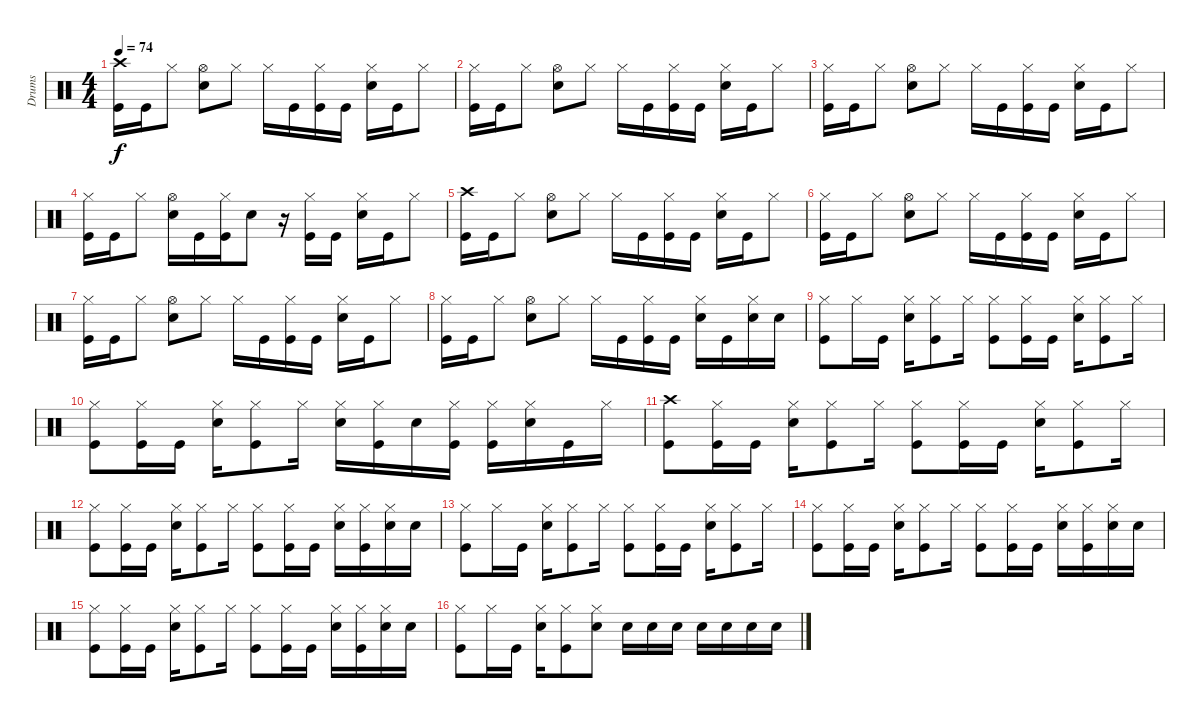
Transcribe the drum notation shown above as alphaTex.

\track ("Drums" "Drums") {instrument percussion}
\staff {score}
\articulation defaults
\ts (4 4)
\tempo 74
\clef neutral
\ks c
("Crash high (hit)" "Kick (hit)").16{dy f} "Kick (hit)".16 "Hi-Hat (closed)".8 ("Hi-Hat (open)" "Snare (hit) 2").8 "Hi-Hat (closed)".8 "Hi-Hat (closed)".16 "Kick (hit)".16 ("Hi-Hat (closed)" "Kick (hit)").16 "Kick (hit)".16 ("Hi-Hat (closed)" "Snare (hit) 2").16 "Kick (hit)".16 "Hi-Hat (closed)".8 |
("Hi-Hat (closed)" "Kick (hit)").16 "Kick (hit)".16 "Hi-Hat (closed)".8 ("Hi-Hat (open)" "Snare (hit) 2").8 "Hi-Hat (closed)".8 "Hi-Hat (closed)".16 "Kick (hit)".16 ("Hi-Hat (closed)" "Kick (hit)").16 "Kick (hit)".16 ("Hi-Hat (closed)" "Snare (hit) 2").16 "Kick (hit)".16 "Hi-Hat (closed)".8 |
("Hi-Hat (closed)" "Kick (hit)").16 "Kick (hit)".16 "Hi-Hat (closed)".8 ("Hi-Hat (open)" "Snare (hit) 2").8 "Hi-Hat (closed)".8 "Hi-Hat (closed)".16 "Kick (hit)".16 ("Hi-Hat (closed)" "Kick (hit)").16 "Kick (hit)".16 ("Hi-Hat (closed)" "Snare (hit) 2").16 "Kick (hit)".16 "Hi-Hat (closed)".8 |
("Hi-Hat (closed)" "Kick (hit)").16 "Kick (hit)".16 "Hi-Hat (closed)".8 ("Hi-Hat (open)" "Snare (hit) 2").16 "Kick (hit)".16 ("Hi-Hat (closed)" "Kick (hit)").16 "Snare (hit) 2".8 r.16 ("Hi-Hat (closed)" "Kick (hit)").16 "Kick (hit)".16 ("Hi-Hat (closed)" "Snare (hit) 2").16 "Kick (hit)".16 "Hi-Hat (closed)".8 |
("Crash high (hit)" "Kick (hit)").16 "Kick (hit)".16 "Hi-Hat (closed)".8 ("Hi-Hat (open)" "Snare (hit) 2").8 "Hi-Hat (closed)".8 "Hi-Hat (closed)".16 "Kick (hit)".16 ("Hi-Hat (closed)" "Kick (hit)").16 "Kick (hit)".16 ("Hi-Hat (closed)" "Snare (hit) 2").16 "Kick (hit)".16 "Hi-Hat (closed)".8 |
("Hi-Hat (closed)" "Kick (hit)").16 "Kick (hit)".16 "Hi-Hat (closed)".8 ("Hi-Hat (open)" "Snare (hit) 2").8 "Hi-Hat (closed)".8 "Hi-Hat (closed)".16 "Kick (hit)".16 ("Hi-Hat (closed)" "Kick (hit)").16 "Kick (hit)".16 ("Hi-Hat (closed)" "Snare (hit) 2").16 "Kick (hit)".16 "Hi-Hat (closed)".8 |
("Hi-Hat (closed)" "Kick (hit)").16 "Kick (hit)".16 "Hi-Hat (closed)".8 ("Hi-Hat (open)" "Snare (hit) 2").8 "Hi-Hat (closed)".8 "Hi-Hat (closed)".16 "Kick (hit)".16 ("Hi-Hat (closed)" "Kick (hit)").16 "Kick (hit)".16 ("Hi-Hat (closed)" "Snare (hit) 2").16 "Kick (hit)".16 "Hi-Hat (closed)".8 |
("Hi-Hat (closed)" "Kick (hit)").16 "Kick (hit)".16 "Hi-Hat (closed)".8 ("Hi-Hat (open)" "Snare (hit) 2").8 "Hi-Hat (closed)".8 "Hi-Hat (closed)".16 "Kick (hit)".16 ("Hi-Hat (closed)" "Kick (hit)").16 "Kick (hit)".16 ("Hi-Hat (closed)" "Snare (hit) 2").16 "Kick (hit)".16 ("Hi-Hat (closed)" "Snare (hit) 2").16 "Snare (hit) 2".16 |
("Hi-Hat (closed)" "Kick (hit)").8 "Hi-Hat (closed)".16 "Kick (hit)".16 ("Hi-Hat (closed)" "Snare (hit) 2").16 ("Hi-Hat (closed)" "Kick (hit)").8 "Hi-Hat (closed)".16 ("Hi-Hat (closed)" "Kick (hit)").8 ("Hi-Hat (closed)" "Kick (hit)").16 "Kick (hit)".16 ("Hi-Hat (closed)" "Snare (hit) 2").16 ("Hi-Hat (closed)" "Kick (hit)").8 "Hi-Hat (closed)".16 |
("Hi-Hat (closed)" "Kick (hit)").8 ("Hi-Hat (closed)" "Kick (hit)").16 "Kick (hit)".16 ("Hi-Hat (closed)" "Snare (hit) 2").16 ("Hi-Hat (closed)" "Kick (hit)").8 "Hi-Hat (closed)".16 ("Hi-Hat (closed)" "Snare (hit) 2").16 ("Hi-Hat (closed)" "Kick (hit)").16 "Snare (hit) 2".16 ("Hi-Hat (closed)" "Kick (hit)").16 ("Hi-Hat (closed)" "Kick (hit)").16 ("Hi-Hat (closed)" "Snare (hit) 2").16 "Kick (hit)".16 "Hi-Hat (closed)".16 |
("Crash high (hit)" "Kick (hit)").8 ("Hi-Hat (closed)" "Kick (hit)").16 "Kick (hit)".16 ("Hi-Hat (closed)" "Snare (hit) 2").16 ("Hi-Hat (closed)" "Kick (hit)").8 "Hi-Hat (closed)".16 ("Hi-Hat (closed)" "Kick (hit)").8 ("Hi-Hat (closed)" "Kick (hit)").16 "Kick (hit)".16 ("Hi-Hat (closed)" "Snare (hit) 2").16 ("Hi-Hat (closed)" "Kick (hit)").8 "Hi-Hat (closed)".16 |
("Hi-Hat (closed)" "Kick (hit)").8 ("Hi-Hat (closed)" "Kick (hit)").16 "Kick (hit)".16 ("Hi-Hat (closed)" "Snare (hit) 2").16 ("Hi-Hat (closed)" "Kick (hit)").8 "Hi-Hat (closed)".16 ("Hi-Hat (closed)" "Kick (hit)").8 ("Hi-Hat (closed)" "Kick (hit)").16 "Kick (hit)".16 ("Hi-Hat (closed)" "Snare (hit) 2").16 ("Hi-Hat (closed)" "Kick (hit)").16 ("Hi-Hat (closed)" "Snare (hit) 2").16 "Snare (hit) 2".16 |
("Hi-Hat (closed)" "Kick (hit)").8 "Hi-Hat (closed)".16 "Kick (hit)".16 ("Hi-Hat (closed)" "Snare (hit) 2").16 ("Hi-Hat (closed)" "Kick (hit)").8 "Hi-Hat (closed)".16 ("Hi-Hat (closed)" "Kick (hit)").8 ("Hi-Hat (closed)" "Kick (hit)").16 "Kick (hit)".16 ("Hi-Hat (closed)" "Snare (hit) 2").16 ("Hi-Hat (closed)" "Kick (hit)").8 "Hi-Hat (closed)".16 |
("Hi-Hat (closed)" "Kick (hit)").8 ("Hi-Hat (closed)" "Kick (hit)").16 "Kick (hit)".16 ("Hi-Hat (closed)" "Snare (hit) 2").16 ("Hi-Hat (closed)" "Kick (hit)").8 "Hi-Hat (closed)".16 ("Hi-Hat (closed)" "Kick (hit)").8 ("Hi-Hat (closed)" "Kick (hit)").16 "Kick (hit)".16 ("Hi-Hat (closed)" "Snare (hit) 2").16 ("Hi-Hat (closed)" "Kick (hit)").16 ("Hi-Hat (closed)" "Snare (hit) 2").16 "Snare (hit) 2".16 |
("Hi-Hat (closed)" "Kick (hit)").8 ("Hi-Hat (closed)" "Kick (hit)").16 "Kick (hit)".16 ("Hi-Hat (closed)" "Snare (hit) 2").16 ("Hi-Hat (closed)" "Kick (hit)").8 "Hi-Hat (closed)".16 ("Hi-Hat (closed)" "Kick (hit)").8 ("Hi-Hat (closed)" "Kick (hit)").16 "Kick (hit)".16 ("Hi-Hat (closed)" "Snare (hit) 2").16 ("Hi-Hat (closed)" "Kick (hit)").16 ("Hi-Hat (closed)" "Snare (hit) 2").16 "Snare (hit) 2".16 |
("Hi-Hat (closed)" "Kick (hit)").8 "Hi-Hat (closed)".16 "Kick (hit)".16 ("Hi-Hat (closed)" "Snare (hit) 2").16 ("Hi-Hat (closed)" "Kick (hit)").8 ("Hi-Hat (closed)" "Snare (hit) 2").8 "Snare (hit) 2".16 "Snare (hit) 2".16 "Snare (hit) 2".16 "Snare (hit) 2".16 "Snare (hit) 2".16 "Snare (hit) 2".16 "Snare (hit) 2".16
